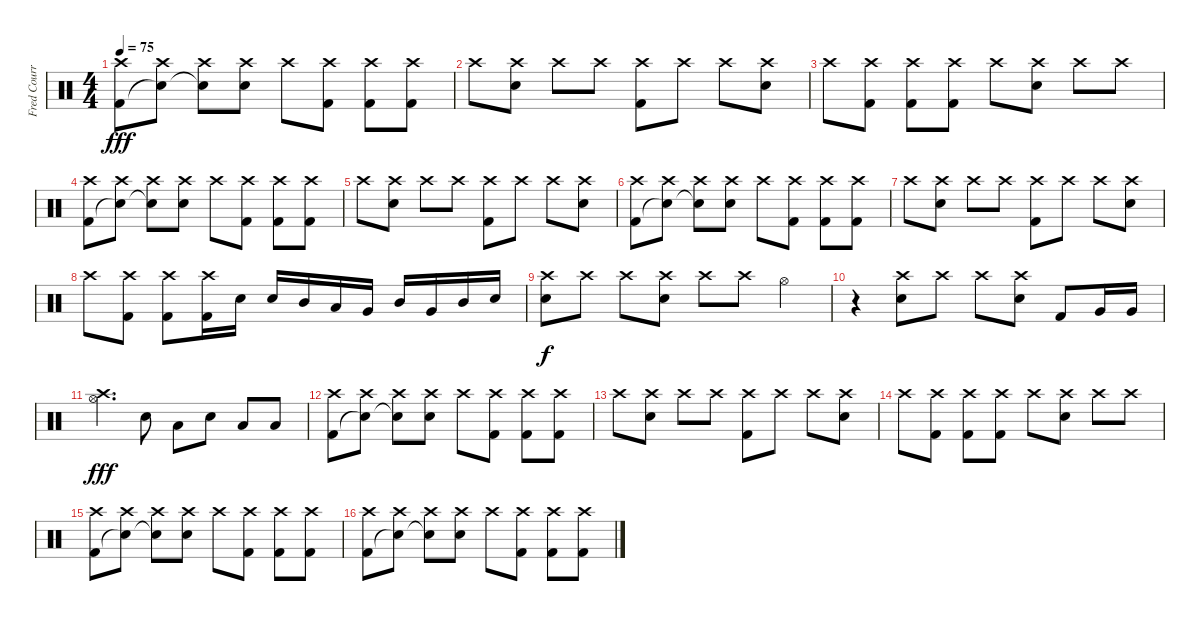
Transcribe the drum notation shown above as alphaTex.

\track ("Fred Courry" "Fred Courr") {instrument percussion}
\staff {score}
\articulation defaults
\ts (4 4)
\tempo 75
\clef neutral
\ks c
("Crash high (hit)" "Kick (hit) 2").8{dy fff} ("Crash high (hit)" "Snare (hit)"{t}).8 ("Crash high (hit)" "Snare (hit)"{t}).8 ("Crash high (hit)" "Snare (hit) 2").8 "Crash high (hit)".8 ("Crash high (hit)" "Kick (hit) 2").8 ("Crash high (hit)" "Kick (hit) 2").8 ("Crash high (hit)" "Kick (hit) 2").8 |
"Crash high (hit)".8 ("Crash high (hit)" "Snare (hit) 2").8 "Crash high (hit)".8 "Crash high (hit)".8 ("Crash high (hit)" "Kick (hit) 2").8 "Crash high (hit)".8 "Crash high (hit)".8 ("Crash high (hit)" "Snare (hit) 2").8 |
"Crash high (hit)".8 ("Crash high (hit)" "Kick (hit) 2").8 ("Crash high (hit)" "Kick (hit) 2").8 ("Crash high (hit)" "Kick (hit) 2").8 "Crash high (hit)".8 ("Crash high (hit)" "Snare (hit) 2").8 "Crash high (hit)".8 "Crash high (hit)".8 |
("Crash high (hit)" "Kick (hit) 2").8 ("Crash high (hit)" "Snare (hit)"{t}).8 ("Crash high (hit)" "Snare (hit)"{t}).8 ("Crash high (hit)" "Snare (hit) 2").8 "Crash high (hit)".8 ("Crash high (hit)" "Kick (hit) 2").8 ("Crash high (hit)" "Kick (hit) 2").8 ("Crash high (hit)" "Kick (hit) 2").8 |
"Crash high (hit)".8 ("Crash high (hit)" "Snare (hit) 2").8 "Crash high (hit)".8 "Crash high (hit)".8 ("Crash high (hit)" "Kick (hit) 2").8 "Crash high (hit)".8 "Crash high (hit)".8 ("Crash high (hit)" "Snare (hit) 2").8 |
("Crash high (hit)" "Kick (hit) 2").8 ("Crash high (hit)" "Snare (hit)"{t}).8 ("Crash high (hit)" "Snare (hit)"{t}).8 ("Crash high (hit)" "Snare (hit) 2").8 "Crash high (hit)".8 ("Crash high (hit)" "Kick (hit) 2").8 ("Crash high (hit)" "Kick (hit) 2").8 ("Crash high (hit)" "Kick (hit) 2").8 |
"Crash high (hit)".8 ("Crash high (hit)" "Snare (hit) 2").8 "Crash high (hit)".8 "Crash high (hit)".8 ("Crash high (hit)" "Kick (hit) 2").8 "Crash high (hit)".8 "Crash high (hit)".8 ("Crash high (hit)" "Snare (hit) 2").8 |
"Crash high (hit)".8 ("Crash high (hit)" "Kick (hit) 2").8 ("Crash high (hit)" "Kick (hit) 2").8 ("Crash high (hit)" "Kick (hit) 2").16 "Snare (hit) 2".16 "Snare (hit) 2".16 "Mid Tom (hit)".16 "Low Tom (hit)".16 "Very Low Tom (hit)".16 "Mid Tom (hit)".16 "Very Low Tom (hit)".16 "Mid Tom (hit)".16 "Snare (hit) 2".16 |
("Snare (hit) 2" "Crash high (hit)").8{dy f} "Crash high (hit)".8 "Crash high (hit)".8 ("Snare (hit) 2" "Crash high (hit)").8 "Crash high (hit)".8 "Crash high (hit)".8 "Hi-Hat (open)".4 |
r.4 ("Snare (hit) 2" "Crash high (hit)").8 "Crash high (hit)".8 "Crash high (hit)".8 ("Snare (hit) 2" "Crash high (hit)").8 "Kick (hit) 2".8 "Very Low Tom (hit)".16 "Very Low Tom (hit)".16 |
("Hi-Hat (open)" "Crash high (hit)").4{d dy fff} "Snare (hit) 2".8 "Low Floor Tom (hit)".8 "Snare (hit) 2".8 "Low Floor Tom (hit)".8 "Low Floor Tom (hit)".8 |
("Crash high (hit)" "Kick (hit) 2").8 ("Crash high (hit)" "Snare (hit)"{t}).8 ("Crash high (hit)" "Snare (hit)"{t}).8 ("Crash high (hit)" "Snare (hit) 2").8 "Crash high (hit)".8 ("Crash high (hit)" "Kick (hit) 2").8 ("Crash high (hit)" "Kick (hit) 2").8 ("Crash high (hit)" "Kick (hit) 2").8 |
"Crash high (hit)".8 ("Crash high (hit)" "Snare (hit) 2").8 "Crash high (hit)".8 "Crash high (hit)".8 ("Crash high (hit)" "Kick (hit) 2").8 "Crash high (hit)".8 "Crash high (hit)".8 ("Crash high (hit)" "Snare (hit) 2").8 |
"Crash high (hit)".8 ("Crash high (hit)" "Kick (hit) 2").8 ("Crash high (hit)" "Kick (hit) 2").8 ("Crash high (hit)" "Kick (hit) 2").8 "Crash high (hit)".8 ("Crash high (hit)" "Snare (hit) 2").8 "Crash high (hit)".8 "Crash high (hit)".8 |
("Crash high (hit)" "Kick (hit) 2").8 ("Crash high (hit)" "Snare (hit)"{t}).8 ("Crash high (hit)" "Snare (hit)"{t}).8 ("Crash high (hit)" "Snare (hit) 2").8 "Crash high (hit)".8 ("Crash high (hit)" "Kick (hit) 2").8 ("Crash high (hit)" "Kick (hit) 2").8 ("Crash high (hit)" "Kick (hit) 2").8 |
("Crash high (hit)" "Kick (hit) 2").8 ("Crash high (hit)" "Snare (hit)"{t}).8 ("Crash high (hit)" "Snare (hit)"{t}).8 ("Crash high (hit)" "Snare (hit) 2").8 "Crash high (hit)".8 ("Crash high (hit)" "Kick (hit) 2").8 ("Crash high (hit)" "Kick (hit) 2").8 ("Crash high (hit)" "Kick (hit) 2").8
